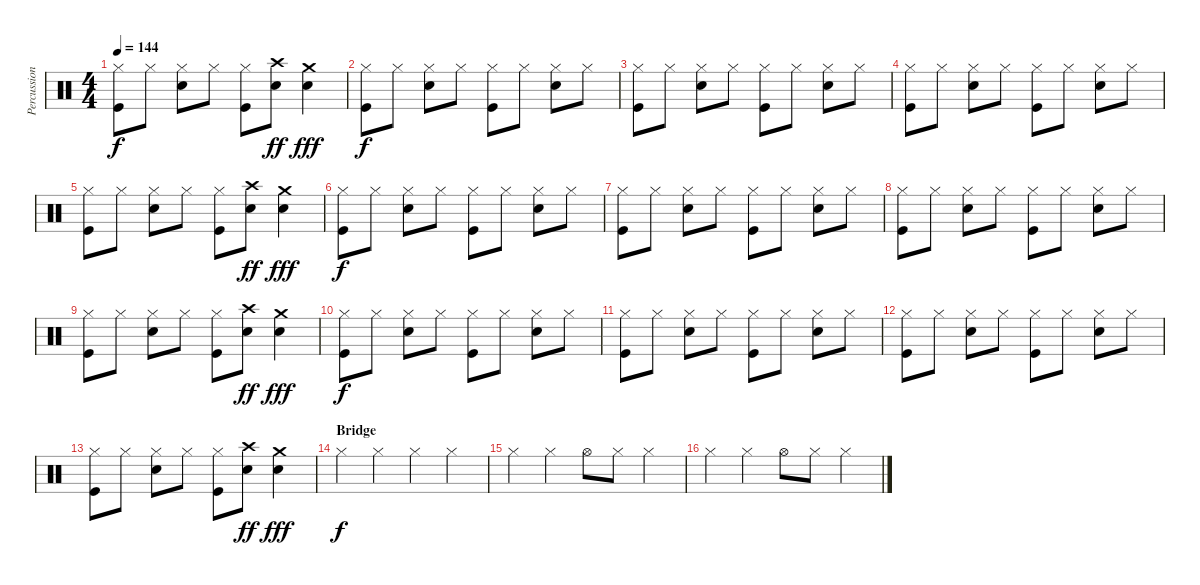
\track ("Percussions" "Percussion") {instrument percussion}
\staff {score}
\articulation defaults
\ts (4 4)
\tempo 144
\clef neutral
\ks c
("Hi-Hat (closed)" "Kick (hit)").8{dy f} "Hi-Hat (closed)".8 ("Hi-Hat (closed)" "Snare (hit) 2").8 "Hi-Hat (closed)".8 ("Hi-Hat (closed)" "Kick (hit)").8 ("Crash high (hit)" "Snare (hit) 2").8{dy ff} ("Crash medium (hit)" "Snare (hit) 2").4{dy fff} |
("Hi-Hat (closed)" "Kick (hit)").8{dy f} "Hi-Hat (closed)".8 ("Hi-Hat (closed)" "Snare (hit) 2").8 "Hi-Hat (closed)".8 ("Hi-Hat (closed)" "Kick (hit)").8 "Hi-Hat (closed)".8 ("Hi-Hat (closed)" "Snare (hit) 2").8 "Hi-Hat (closed)".8 |
("Hi-Hat (closed)" "Kick (hit)").8 "Hi-Hat (closed)".8 ("Hi-Hat (closed)" "Snare (hit) 2").8 "Hi-Hat (closed)".8 ("Hi-Hat (closed)" "Kick (hit)").8 "Hi-Hat (closed)".8 ("Hi-Hat (closed)" "Snare (hit) 2").8 "Hi-Hat (closed)".8 |
("Hi-Hat (closed)" "Kick (hit)").8 "Hi-Hat (closed)".8 ("Hi-Hat (closed)" "Snare (hit) 2").8 "Hi-Hat (closed)".8 ("Hi-Hat (closed)" "Kick (hit)").8 "Hi-Hat (closed)".8 ("Hi-Hat (closed)" "Snare (hit) 2").8 "Hi-Hat (closed)".8 |
("Hi-Hat (closed)" "Kick (hit)").8 "Hi-Hat (closed)".8 ("Hi-Hat (closed)" "Snare (hit) 2").8 "Hi-Hat (closed)".8 ("Hi-Hat (closed)" "Kick (hit)").8 ("Crash high (hit)" "Snare (hit) 2").8{dy ff} ("Crash medium (hit)" "Snare (hit) 2").4{dy fff} |
("Hi-Hat (closed)" "Kick (hit)").8{dy f} "Hi-Hat (closed)".8 ("Hi-Hat (closed)" "Snare (hit) 2").8 "Hi-Hat (closed)".8 ("Hi-Hat (closed)" "Kick (hit)").8 "Hi-Hat (closed)".8 ("Hi-Hat (closed)" "Snare (hit) 2").8 "Hi-Hat (closed)".8 |
("Hi-Hat (closed)" "Kick (hit)").8 "Hi-Hat (closed)".8 ("Hi-Hat (closed)" "Snare (hit) 2").8 "Hi-Hat (closed)".8 ("Hi-Hat (closed)" "Kick (hit)").8 "Hi-Hat (closed)".8 ("Hi-Hat (closed)" "Snare (hit) 2").8 "Hi-Hat (closed)".8 |
("Hi-Hat (closed)" "Kick (hit)").8 "Hi-Hat (closed)".8 ("Hi-Hat (closed)" "Snare (hit) 2").8 "Hi-Hat (closed)".8 ("Hi-Hat (closed)" "Kick (hit)").8 "Hi-Hat (closed)".8 ("Hi-Hat (closed)" "Snare (hit) 2").8 "Hi-Hat (closed)".8 |
("Hi-Hat (closed)" "Kick (hit)").8 "Hi-Hat (closed)".8 ("Hi-Hat (closed)" "Snare (hit) 2").8 "Hi-Hat (closed)".8 ("Hi-Hat (closed)" "Kick (hit)").8 ("Crash high (hit)" "Snare (hit) 2").8{dy ff} ("Crash medium (hit)" "Snare (hit) 2").4{dy fff} |
("Hi-Hat (closed)" "Kick (hit)").8{dy f} "Hi-Hat (closed)".8 ("Hi-Hat (closed)" "Snare (hit) 2").8 "Hi-Hat (closed)".8 ("Hi-Hat (closed)" "Kick (hit)").8 "Hi-Hat (closed)".8 ("Hi-Hat (closed)" "Snare (hit) 2").8 "Hi-Hat (closed)".8 |
("Hi-Hat (closed)" "Kick (hit)").8 "Hi-Hat (closed)".8 ("Hi-Hat (closed)" "Snare (hit) 2").8 "Hi-Hat (closed)".8 ("Hi-Hat (closed)" "Kick (hit)").8 "Hi-Hat (closed)".8 ("Hi-Hat (closed)" "Snare (hit) 2").8 "Hi-Hat (closed)".8 |
("Hi-Hat (closed)" "Kick (hit)").8 "Hi-Hat (closed)".8 ("Hi-Hat (closed)" "Snare (hit) 2").8 "Hi-Hat (closed)".8 ("Hi-Hat (closed)" "Kick (hit)").8 "Hi-Hat (closed)".8 ("Hi-Hat (closed)" "Snare (hit) 2").8 "Hi-Hat (closed)".8 |
("Hi-Hat (closed)" "Kick (hit)").8 "Hi-Hat (closed)".8 ("Hi-Hat (closed)" "Snare (hit) 2").8 "Hi-Hat (closed)".8 ("Hi-Hat (closed)" "Kick (hit)").8 ("Crash high (hit)" "Snare (hit) 2").8{dy ff} ("Crash medium (hit)" "Snare (hit) 2").4{dy fff} |
\section ("" "Bridge")
"Hi-Hat (closed)".4{dy f} "Hi-Hat (closed)".4 "Hi-Hat (closed)".4 "Hi-Hat (closed)".4 |
"Hi-Hat (closed)".4 "Hi-Hat (closed)".4 "Hi-Hat (open)".8 "Hi-Hat (closed)".8 "Hi-Hat (closed)".4 |
"Hi-Hat (closed)".4 "Hi-Hat (closed)".4 "Hi-Hat (open)".8 "Hi-Hat (closed)".8 "Hi-Hat (closed)".4
